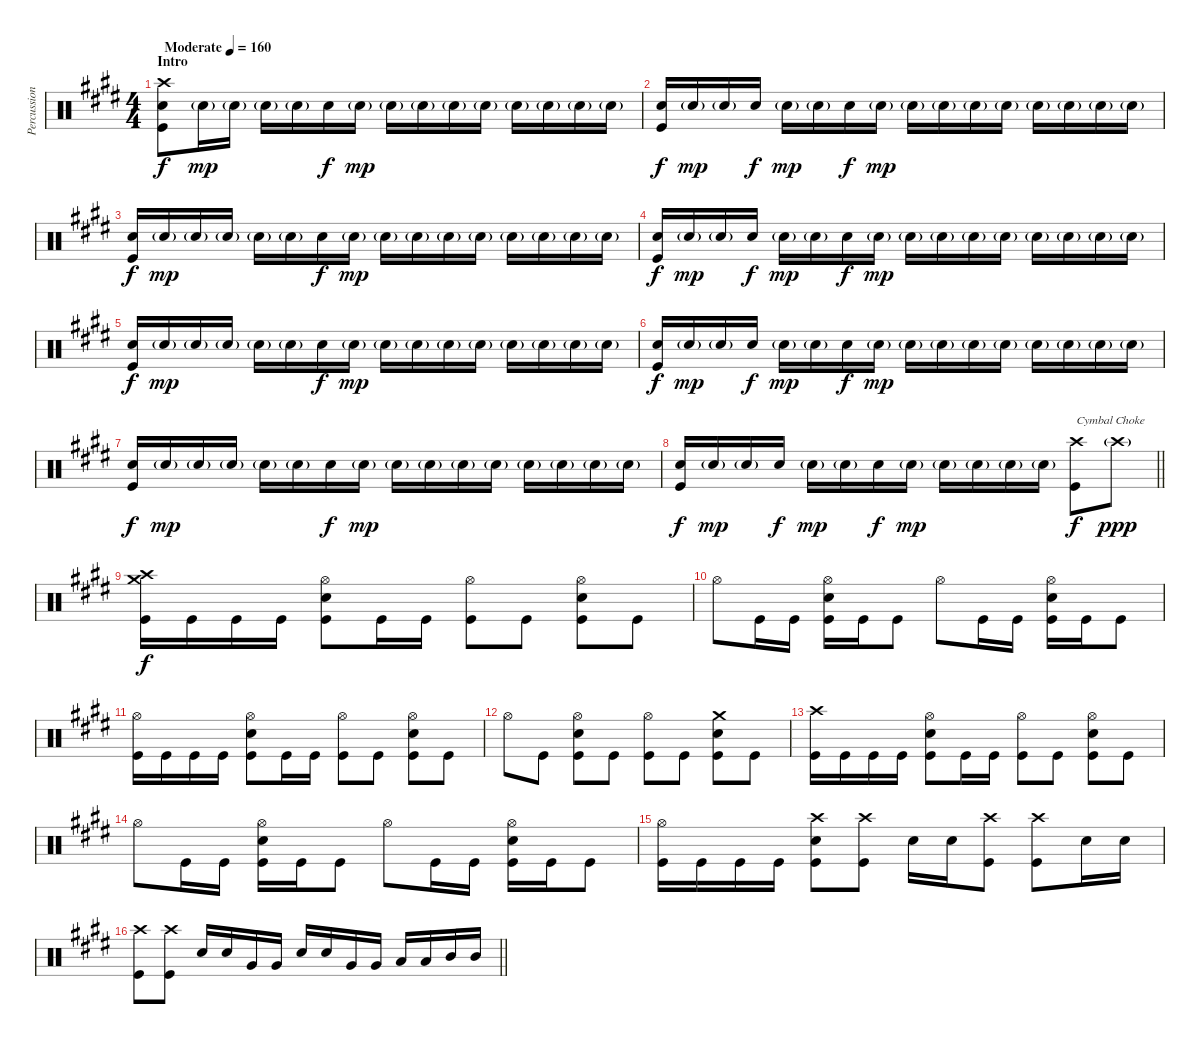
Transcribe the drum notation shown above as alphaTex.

\track ("Percussion" "Percussion") {instrument percussion}
\staff {score}
\articulation defaults
\ts (4 4)
\section ("" "Intro")
\tempo (160 "Moderate")
\clef neutral
\ks e
("Crash high (hit)" "Electric Snare (hit)" "Kick (hit)").8{dy f} "Electric Snare (hit)"{g}.16{dy mp} "Electric Snare (hit)"{g}.16 "Electric Snare (hit)"{g}.16 "Electric Snare (hit)"{g}.16 "Electric Snare (hit)".16{dy f} "Electric Snare (hit)"{g}.16{dy mp} "Electric Snare (hit)"{g}.16 "Electric Snare (hit)"{g}.16 "Electric Snare (hit)"{g}.16 "Electric Snare (hit)"{g}.16 "Electric Snare (hit)"{g}.16 "Electric Snare (hit)"{g}.16 "Electric Snare (hit)"{g}.16 "Electric Snare (hit)"{g}.16 |
("Electric Snare (hit)" "Kick (hit)").16{dy f} "Electric Snare (hit)"{g}.16{dy mp} "Electric Snare (hit)"{g}.16 "Electric Snare (hit)".16{dy f} "Electric Snare (hit)"{g}.16{dy mp} "Electric Snare (hit)"{g}.16 "Electric Snare (hit)".16{dy f} "Electric Snare (hit)"{g}.16{dy mp} "Electric Snare (hit)"{g}.16 "Electric Snare (hit)"{g}.16 "Electric Snare (hit)"{g}.16 "Electric Snare (hit)"{g}.16 "Electric Snare (hit)"{g}.16 "Electric Snare (hit)"{g}.16 "Electric Snare (hit)"{g}.16 "Electric Snare (hit)"{g}.16 |
("Electric Snare (hit)" "Kick (hit)").16{dy f} "Electric Snare (hit)"{g}.16{dy mp} "Electric Snare (hit)"{g}.16 "Electric Snare (hit)"{g}.16 "Electric Snare (hit)"{g}.16 "Electric Snare (hit)"{g}.16 "Electric Snare (hit)".16{dy f} "Electric Snare (hit)"{g}.16{dy mp} "Electric Snare (hit)"{g}.16 "Electric Snare (hit)"{g}.16 "Electric Snare (hit)"{g}.16 "Electric Snare (hit)"{g}.16 "Electric Snare (hit)"{g}.16 "Electric Snare (hit)"{g}.16 "Electric Snare (hit)"{g}.16 "Electric Snare (hit)"{g}.16 |
("Electric Snare (hit)" "Kick (hit)").16{dy f} "Electric Snare (hit)"{g}.16{dy mp} "Electric Snare (hit)"{g}.16 "Electric Snare (hit)".16{dy f} "Electric Snare (hit)"{g}.16{dy mp} "Electric Snare (hit)"{g}.16 "Electric Snare (hit)".16{dy f} "Electric Snare (hit)"{g}.16{dy mp} "Electric Snare (hit)"{g}.16 "Electric Snare (hit)"{g}.16 "Electric Snare (hit)"{g}.16 "Electric Snare (hit)"{g}.16 "Electric Snare (hit)"{g}.16 "Electric Snare (hit)"{g}.16 "Electric Snare (hit)"{g}.16 "Electric Snare (hit)"{g}.16 |
("Electric Snare (hit)" "Kick (hit)").16{dy f} "Electric Snare (hit)"{g}.16{dy mp} "Electric Snare (hit)"{g}.16 "Electric Snare (hit)"{g}.16 "Electric Snare (hit)"{g}.16 "Electric Snare (hit)"{g}.16 "Electric Snare (hit)".16{dy f} "Electric Snare (hit)"{g}.16{dy mp} "Electric Snare (hit)"{g}.16 "Electric Snare (hit)"{g}.16 "Electric Snare (hit)"{g}.16 "Electric Snare (hit)"{g}.16 "Electric Snare (hit)"{g}.16 "Electric Snare (hit)"{g}.16 "Electric Snare (hit)"{g}.16 "Electric Snare (hit)"{g}.16 |
("Electric Snare (hit)" "Kick (hit)").16{dy f} "Electric Snare (hit)"{g}.16{dy mp} "Electric Snare (hit)"{g}.16 "Electric Snare (hit)".16{dy f} "Electric Snare (hit)"{g}.16{dy mp} "Electric Snare (hit)"{g}.16 "Electric Snare (hit)".16{dy f} "Electric Snare (hit)"{g}.16{dy mp} "Electric Snare (hit)"{g}.16 "Electric Snare (hit)"{g}.16 "Electric Snare (hit)"{g}.16 "Electric Snare (hit)"{g}.16 "Electric Snare (hit)"{g}.16 "Electric Snare (hit)"{g}.16 "Electric Snare (hit)"{g}.16 "Electric Snare (hit)"{g}.16 |
("Electric Snare (hit)" "Kick (hit)").16{dy f} "Electric Snare (hit)"{g}.16{dy mp} "Electric Snare (hit)"{g}.16 "Electric Snare (hit)"{g}.16 "Electric Snare (hit)"{g}.16 "Electric Snare (hit)"{g}.16 "Electric Snare (hit)".16{dy f} "Electric Snare (hit)"{g}.16{dy mp} "Electric Snare (hit)"{g}.16 "Electric Snare (hit)"{g}.16 "Electric Snare (hit)"{g}.16 "Electric Snare (hit)"{g}.16 "Electric Snare (hit)"{g}.16 "Electric Snare (hit)"{g}.16 "Electric Snare (hit)"{g}.16 "Electric Snare (hit)"{g}.16 |
\barLineRight lightlight
("Electric Snare (hit)" "Kick (hit)").16{dy f} "Electric Snare (hit)"{g}.16{dy mp} "Electric Snare (hit)"{g}.16 "Electric Snare (hit)".16{dy f} "Electric Snare (hit)"{g}.16{dy mp} "Electric Snare (hit)"{g}.16 "Electric Snare (hit)".16{dy f} "Electric Snare (hit)"{g}.16{dy mp} "Electric Snare (hit)"{g}.16 "Electric Snare (hit)"{g}.16 "Electric Snare (hit)"{g}.16 "Electric Snare (hit)"{g}.16 ("Crash high (hit)" "Kick (hit)").8{txt "Cymbal Choke" dy f} "Crash high (hit)"{g}.8{dy ppp} |
\section ("" "")
("Crash high (hit)" "Crash medium (hit)" "Kick (hit)").16{dy f} "Kick (hit)".16 "Kick (hit)".16 "Kick (hit)".16 ("Hi-Hat (open)" "Electric Snare (hit)" "Kick (hit)").8 "Kick (hit)".16 "Kick (hit)".16 ("Hi-Hat (open)" "Kick (hit)").8 "Kick (hit)".8 ("Hi-Hat (open)" "Electric Snare (hit)" "Kick (hit)").8 "Kick (hit)".8 |
"Hi-Hat (open)".8 "Kick (hit)".16 "Kick (hit)".16 ("Hi-Hat (open)" "Electric Snare (hit)" "Kick (hit)").16 "Kick (hit)".16 "Kick (hit)".8 "Hi-Hat (open)".8 "Kick (hit)".16 "Kick (hit)".16 ("Hi-Hat (open)" "Electric Snare (hit)" "Kick (hit)").16 "Kick (hit)".16 "Kick (hit)".8 |
("Hi-Hat (open)" "Kick (hit)").16 "Kick (hit)".16 "Kick (hit)".16 "Kick (hit)".16 ("Hi-Hat (open)" "Electric Snare (hit)" "Kick (hit)").8 "Kick (hit)".16 "Kick (hit)".16 ("Hi-Hat (open)" "Kick (hit)").8 "Kick (hit)".8 ("Hi-Hat (open)" "Electric Snare (hit)" "Kick (hit)").8 "Kick (hit)".8 |
"Hi-Hat (open)".8 "Kick (hit)".8 ("Hi-Hat (open)" "Electric Snare (hit)" "Kick (hit)").8 "Kick (hit)".8 ("Hi-Hat (open)" "Kick (hit)").8 "Kick (hit)".8 ("Crash medium (hit)" "Electric Snare (hit)" "Kick (hit)").8 "Kick (hit)".8 |
("Crash high (hit)" "Kick (hit)").16 "Kick (hit)".16 "Kick (hit)".16 "Kick (hit)".16 ("Hi-Hat (open)" "Electric Snare (hit)" "Kick (hit)").8 "Kick (hit)".16 "Kick (hit)".16 ("Hi-Hat (open)" "Kick (hit)").8 "Kick (hit)".8 ("Hi-Hat (open)" "Electric Snare (hit)" "Kick (hit)").8 "Kick (hit)".8 |
"Hi-Hat (open)".8 "Kick (hit)".16 "Kick (hit)".16 ("Hi-Hat (open)" "Electric Snare (hit)" "Kick (hit)").16 "Kick (hit)".16 "Kick (hit)".8 "Hi-Hat (open)".8 "Kick (hit)".16 "Kick (hit)".16 ("Hi-Hat (open)" "Electric Snare (hit)" "Kick (hit)").16 "Kick (hit)".16 "Kick (hit)".8 |
("Hi-Hat (open)" "Kick (hit)").16 "Kick (hit)".16 "Kick (hit)".16 "Kick (hit)".16 ("Crash high (hit)" "Electric Snare (hit)" "Kick (hit)").8 ("Crash high (hit)" "Kick (hit)").8 "Electric Snare (hit)".16 "Electric Snare (hit)".16 ("Crash high (hit)" "Kick (hit)").8 ("Crash high (hit)" "Kick (hit)").8 "Electric Snare (hit)".16 "Electric Snare (hit)".16 |
\barLineRight lightlight
("Crash high (hit)" "Kick (hit)").8 ("Crash high (hit)" "Kick (hit)").8 "Electric Snare (hit)".16 "Electric Snare (hit)".16 "Very Low Tom (hit)".16 "Very Low Tom (hit)".16 "Electric Snare (hit)".16 "Electric Snare (hit)".16 "Very Low Tom (hit)".16 "Very Low Tom (hit)".16 "Low Tom (hit)".16 "Low Tom (hit)".16 "Mid Tom (hit)".16 "Mid Tom (hit)".16
